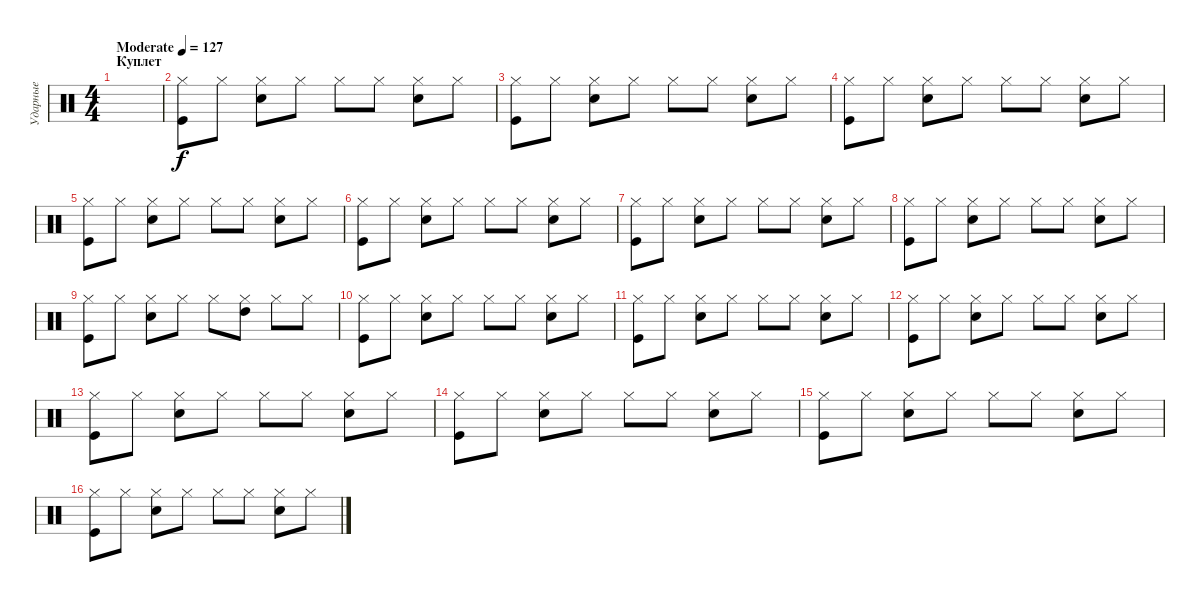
\track ("Ударные" "Ударные") {instrument percussion}
\staff {score}
\articulation defaults
\ts (4 4)
\section ("" "Куплет")
\tempo (127 "Moderate")
\clef neutral
\ks c
|
("Hi-Hat (closed)" "Kick (hit)").8 "Hi-Hat (closed)".8 ("Hi-Hat (closed)" "Snare (hit) 2").8 "Hi-Hat (closed)".8 "Hi-Hat (closed)".8 "Hi-Hat (closed)".8 ("Hi-Hat (closed)" "Snare (hit) 2").8 "Hi-Hat (closed)".8 |
("Hi-Hat (closed)" "Kick (hit)").8 "Hi-Hat (closed)".8 ("Hi-Hat (closed)" "Snare (hit) 2").8 "Hi-Hat (closed)".8 "Hi-Hat (closed)".8 "Hi-Hat (closed)".8 ("Hi-Hat (closed)" "Snare (hit) 2").8 "Hi-Hat (closed)".8 |
("Hi-Hat (closed)" "Kick (hit)").8 "Hi-Hat (closed)".8 ("Hi-Hat (closed)" "Snare (hit) 2").8 "Hi-Hat (closed)".8 "Hi-Hat (closed)".8 "Hi-Hat (closed)".8 ("Hi-Hat (closed)" "Snare (hit) 2").8 "Hi-Hat (closed)".8 |
("Hi-Hat (closed)" "Kick (hit)").8 "Hi-Hat (closed)".8 ("Hi-Hat (closed)" "Snare (hit) 2").8 "Hi-Hat (closed)".8 "Hi-Hat (closed)".8 "Hi-Hat (closed)".8 ("Hi-Hat (closed)" "Snare (hit) 2").8 "Hi-Hat (closed)".8 |
("Hi-Hat (closed)" "Kick (hit)").8 "Hi-Hat (closed)".8 ("Hi-Hat (closed)" "Snare (hit) 2").8 "Hi-Hat (closed)".8 "Hi-Hat (closed)".8 "Hi-Hat (closed)".8 ("Hi-Hat (closed)" "Snare (hit) 2").8 "Hi-Hat (closed)".8 |
("Hi-Hat (closed)" "Kick (hit)").8 "Hi-Hat (closed)".8 ("Hi-Hat (closed)" "Snare (hit) 2").8 "Hi-Hat (closed)".8 "Hi-Hat (closed)".8 "Hi-Hat (closed)".8 ("Hi-Hat (closed)" "Snare (hit) 2").8 "Hi-Hat (closed)".8 |
("Hi-Hat (closed)" "Kick (hit)").8 "Hi-Hat (closed)".8 ("Hi-Hat (closed)" "Snare (hit) 2").8 "Hi-Hat (closed)".8 "Hi-Hat (closed)".8 "Hi-Hat (closed)".8 ("Hi-Hat (closed)" "Snare (hit) 2").8 "Hi-Hat (closed)".8 |
("Hi-Hat (closed)" "Kick (hit)").8 "Hi-Hat (closed)".8 ("Hi-Hat (closed)" "Snare (hit) 2").8 "Hi-Hat (closed)".8 "Hi-Hat (closed)".8 ("Hi-Hat (closed)" "High Tom (hit)").8 "Hi-Hat (closed)".8 "Hi-Hat (closed)".8 |
("Hi-Hat (closed)" "Kick (hit)").8 "Hi-Hat (closed)".8 ("Hi-Hat (closed)" "Snare (hit) 2").8 "Hi-Hat (closed)".8 "Hi-Hat (closed)".8 "Hi-Hat (closed)".8 ("Hi-Hat (closed)" "Snare (hit) 2").8 "Hi-Hat (closed)".8 |
("Hi-Hat (closed)" "Kick (hit)").8 "Hi-Hat (closed)".8 ("Hi-Hat (closed)" "Snare (hit) 2").8 "Hi-Hat (closed)".8 "Hi-Hat (closed)".8 "Hi-Hat (closed)".8 ("Hi-Hat (closed)" "Snare (hit) 2").8 "Hi-Hat (closed)".8 |
("Hi-Hat (closed)" "Kick (hit)").8 "Hi-Hat (closed)".8 ("Hi-Hat (closed)" "Snare (hit) 2").8 "Hi-Hat (closed)".8 "Hi-Hat (closed)".8 "Hi-Hat (closed)".8 ("Hi-Hat (closed)" "Snare (hit) 2").8 "Hi-Hat (closed)".8 |
("Hi-Hat (closed)" "Kick (hit)").8 "Hi-Hat (closed)".8 ("Hi-Hat (closed)" "Snare (hit) 2").8 "Hi-Hat (closed)".8 "Hi-Hat (closed)".8 "Hi-Hat (closed)".8 ("Hi-Hat (closed)" "Snare (hit) 2").8 "Hi-Hat (closed)".8 |
("Hi-Hat (closed)" "Kick (hit)").8 "Hi-Hat (closed)".8 ("Hi-Hat (closed)" "Snare (hit) 2").8 "Hi-Hat (closed)".8 "Hi-Hat (closed)".8 "Hi-Hat (closed)".8 ("Hi-Hat (closed)" "Snare (hit) 2").8 "Hi-Hat (closed)".8 |
("Hi-Hat (closed)" "Kick (hit)").8 "Hi-Hat (closed)".8 ("Hi-Hat (closed)" "Snare (hit) 2").8 "Hi-Hat (closed)".8 "Hi-Hat (closed)".8 "Hi-Hat (closed)".8 ("Hi-Hat (closed)" "Snare (hit) 2").8 "Hi-Hat (closed)".8 |
("Hi-Hat (closed)" "Kick (hit)").8 "Hi-Hat (closed)".8 ("Hi-Hat (closed)" "Snare (hit) 2").8 "Hi-Hat (closed)".8 "Hi-Hat (closed)".8 "Hi-Hat (closed)".8 ("Hi-Hat (closed)" "Snare (hit) 2").8 "Hi-Hat (closed)".8
